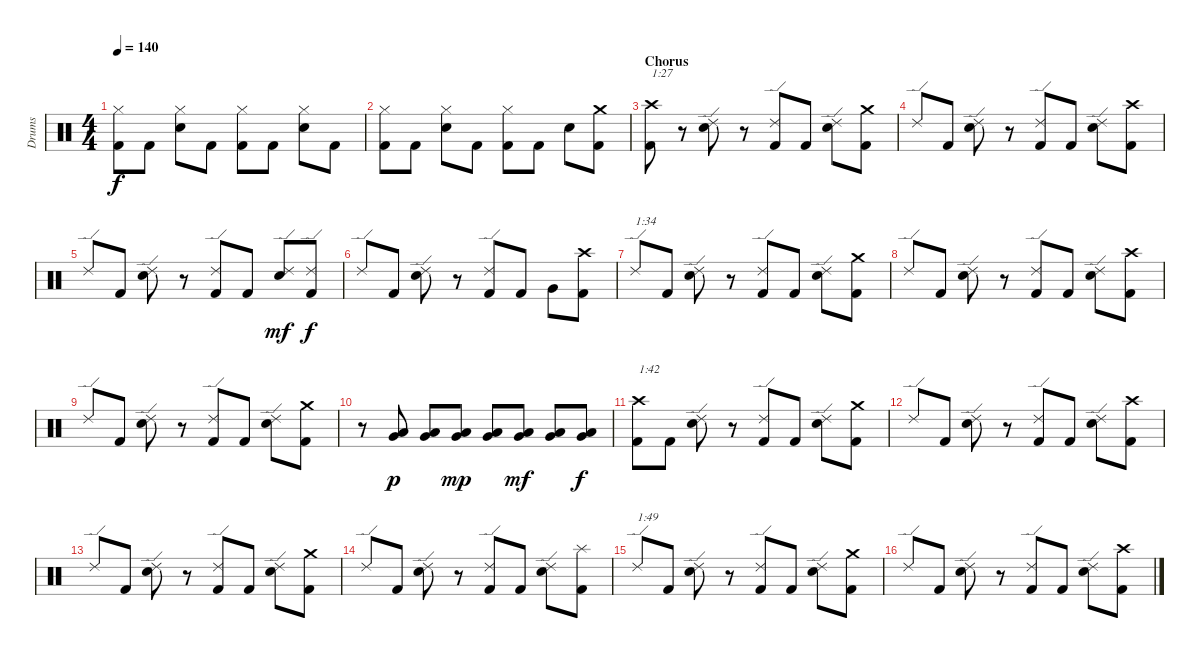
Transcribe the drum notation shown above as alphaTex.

\track ("Drums" "Drums") {instrument percussion}
\staff {score}
\articulation defaults
\ts (4 4)
\tempo 140
\clef neutral
\ks c
("Hi-Hat (closed)" "Kick (hit) 2").8{dy f} "Kick (hit) 2".8 ("Hi-Hat (closed)" "Electric Snare (hit)").8 "Kick (hit) 2".8 ("Hi-Hat (closed)" "Kick (hit) 2").8 "Kick (hit) 2".8 ("Hi-Hat (closed)" "Electric Snare (hit)").8 "Kick (hit) 2".8 |
("Hi-Hat (closed)" "Kick (hit) 2").8 "Kick (hit) 2".8 ("Hi-Hat (closed)" "Electric Snare (hit)").8 "Kick (hit) 2".8 ("Hi-Hat (closed)" "Kick (hit) 2").8 "Kick (hit) 2".8 "Electric Snare (hit)".8 ("Crash medium (hit)" "Kick (hit) 2").8 |
\section ("" "Chorus")
("Crash high (hit)" "Kick (hit) 2").8{txt "1:27"} r.8 ("Ride (edge) 2" "Electric Snare (hit)").8 r.8 ("Ride (edge) 2" "Kick (hit) 2").8 "Kick (hit) 2".8 ("Ride (edge) 2" "Electric Snare (hit)").8 ("Crash medium (hit)" "Kick (hit) 2").8 |
"Ride (edge) 2".8 "Kick (hit) 2".8 ("Ride (edge) 2" "Electric Snare (hit)").8 r.8 ("Ride (edge) 2" "Kick (hit) 2").8 "Kick (hit) 2".8 ("Ride (edge) 2" "Electric Snare (hit)").8 ("Crash high (hit)" "Kick (hit) 2").8 |
"Ride (edge) 2".8 "Kick (hit) 2".8 ("Ride (edge) 2" "Electric Snare (hit)").8 r.8 ("Ride (edge) 2" "Kick (hit) 2").8 "Kick (hit) 2".8 ("Ride (edge) 2" "Electric Snare (hit)").8{dy mf} ("Ride (edge) 2" "Kick (hit) 2").8{dy f} |
"Ride (edge) 2".8 "Kick (hit) 2".8 ("Ride (edge) 2" "Electric Snare (hit)").8 r.8 ("Ride (edge) 2" "Kick (hit) 2").8 "Kick (hit) 2".8 "Very Low Tom (hit)".8 ("Crash high (hit)" "Kick (hit) 2").8 |
"Ride (edge) 2".8{txt "1:34"} "Kick (hit) 2".8 ("Ride (edge) 2" "Electric Snare (hit)").8 r.8 ("Ride (edge) 2" "Kick (hit) 2").8 "Kick (hit) 2".8 ("Ride (edge) 2" "Electric Snare (hit)").8 ("Crash medium (hit)" "Kick (hit) 2").8 |
"Ride (edge) 2".8 "Kick (hit) 2".8 ("Ride (edge) 2" "Electric Snare (hit)").8 r.8 ("Ride (edge) 2" "Kick (hit) 2").8 "Kick (hit) 2".8 ("Ride (edge) 2" "Electric Snare (hit)").8 ("Crash high (hit)" "Kick (hit) 2").8 |
"Ride (edge) 2".8 "Kick (hit) 2".8 ("Ride (edge) 2" "Electric Snare (hit)").8 r.8 ("Ride (edge) 2" "Kick (hit) 2").8 "Kick (hit) 2".8 ("Ride (edge) 2" "Electric Snare (hit)").8 ("Crash medium (hit)" "Kick (hit) 2").8 |
r.8 ("Low Floor Tom (hit)" "Very Low Tom (hit)").8{dy p} ("Low Floor Tom (hit)" "Very Low Tom (hit)").8 ("Low Floor Tom (hit)" "Very Low Tom (hit)").8{dy mp} ("Low Floor Tom (hit)" "Very Low Tom (hit)").8 ("Low Floor Tom (hit)" "Very Low Tom (hit)").8{dy mf} ("Low Floor Tom (hit)" "Very Low Tom (hit)").8 ("Low Floor Tom (hit)" "Very Low Tom (hit)").8{dy f} |
("Crash high (hit)" "Kick (hit) 2").8{txt "1:42"} "Kick (hit) 2".8 ("Ride (edge) 2" "Electric Snare (hit)").8 r.8 ("Ride (edge) 2" "Kick (hit) 2").8 "Kick (hit) 2".8 ("Ride (edge) 2" "Electric Snare (hit)").8 ("Crash medium (hit)" "Kick (hit) 2").8 |
"Ride (edge) 2".8 "Kick (hit) 2".8 ("Ride (edge) 2" "Electric Snare (hit)").8 r.8 ("Ride (edge) 2" "Kick (hit) 2").8 "Kick (hit) 2".8 ("Ride (edge) 2" "Electric Snare (hit)").8 ("Crash high (hit)" "Kick (hit) 2").8 |
"Ride (edge) 2".8 "Kick (hit) 2".8 ("Ride (edge) 2" "Electric Snare (hit)").8 r.8 ("Ride (edge) 2" "Kick (hit) 2").8 "Kick (hit) 2".8 ("Ride (edge) 2" "Electric Snare (hit)").8 ("Crash medium (hit)" "Kick (hit) 2").8 |
"Ride (edge) 2".8 "Kick (hit) 2".8 ("Ride (edge) 2" "Electric Snare (hit)").8 r.8 ("Ride (edge) 2" "Kick (hit) 2").8 "Kick (hit) 2".8 ("Ride (edge) 2" "Electric Snare (hit)").8 ("Splash (hit)" "Kick (hit) 2").8 |
"Ride (edge) 2".8{txt "1:49"} "Kick (hit) 2".8 ("Ride (edge) 2" "Electric Snare (hit)").8 r.8 ("Ride (edge) 2" "Kick (hit) 2").8 "Kick (hit) 2".8 ("Ride (edge) 2" "Electric Snare (hit)").8 ("Crash medium (hit)" "Kick (hit) 2").8 |
"Ride (edge) 2".8 "Kick (hit) 2".8 ("Ride (edge) 2" "Electric Snare (hit)").8 r.8 ("Ride (edge) 2" "Kick (hit) 2").8 "Kick (hit) 2".8 ("Ride (edge) 2" "Electric Snare (hit)").8 ("Crash high (hit)" "Kick (hit) 2").8
